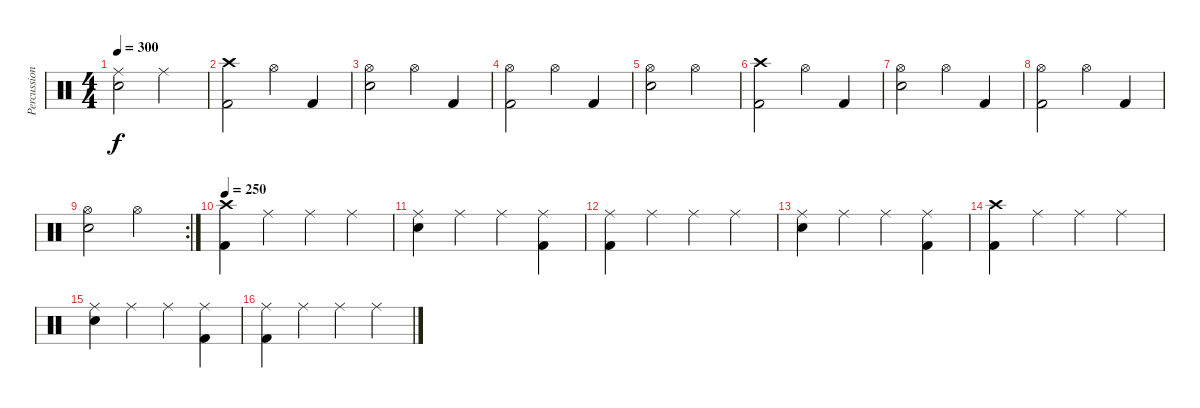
\track ("Percussion" "Percussion") {instrument percussion}
\staff {score}
\articulation defaults
\ts (4 4)
\tempo 300
\clef neutral
\ks c
("Ride (middle)" "Snare (hit) 2").2{dy f} "Ride (middle)".2 |
("Crash high (hit)" "Kick (hit) 2").2 "Hi-Hat (open)".4 "Kick (hit) 2".4 |
("Hi-Hat (open)" "Snare (hit) 2").2 "Hi-Hat (open)".4 "Kick (hit) 2".4 |
("Hi-Hat (open)" "Kick (hit) 2").2 "Hi-Hat (open)".4 "Kick (hit) 2".4 |
("Hi-Hat (open)" "Snare (hit) 2").2 "Hi-Hat (open)".2 |
("Crash high (hit)" "Kick (hit) 2").2 "Hi-Hat (open)".4 "Kick (hit) 2".4 |
("Hi-Hat (open)" "Snare (hit) 2").2 "Hi-Hat (open)".4 "Kick (hit) 2".4 |
("Hi-Hat (open)" "Kick (hit) 2").2 "Hi-Hat (open)".4 "Kick (hit) 2".4 |
\rc 2
("Hi-Hat (open)" "Snare (hit) 2").2 "Hi-Hat (open)".2 |
\tempo 250
("Crash high (hit)" "Kick (hit) 2").4 "Ride (middle)".4 "Ride (middle)".4 "Ride (middle)".4 |
("Ride (middle)" "Snare (hit) 2").4 "Ride (middle)".4 "Ride (middle)".4 ("Ride (middle)" "Kick (hit) 2").4 |
("Ride (middle)" "Kick (hit) 2").4 "Ride (middle)".4 "Ride (middle)".4 "Ride (middle)".4 |
("Ride (middle)" "Snare (hit) 2").4 "Ride (middle)".4 "Ride (middle)".4 ("Ride (middle)" "Kick (hit) 2").4 |
("Crash high (hit)" "Kick (hit) 2").4 "Ride (middle)".4 "Ride (middle)".4 "Ride (middle)".4 |
("Ride (middle)" "Snare (hit) 2").4 "Ride (middle)".4 "Ride (middle)".4 ("Ride (middle)" "Kick (hit) 2").4 |
("Ride (middle)" "Kick (hit) 2").4 "Ride (middle)".4 "Ride (middle)".4 "Ride (middle)".4
